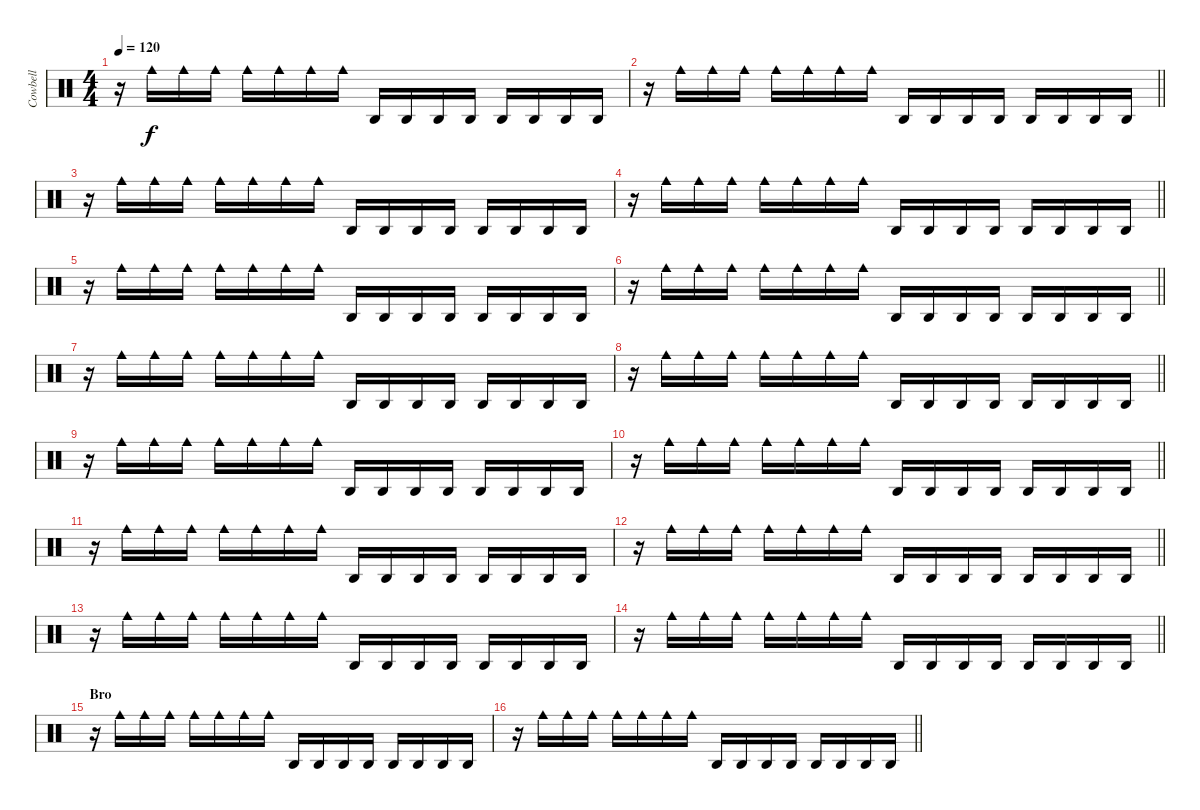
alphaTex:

\track ("Cowbell" "Cowbell") {instrument percussion}
\staff {score}
\articulation defaults
\ts (4 4)
\tempo 120
\clef neutral
\ks c
r.16{dy f} "Cowbell medium (hit)".16 "Cowbell medium (hit)".16 "Cowbell medium (hit)".16 "Cowbell medium (hit)".16 "Cowbell medium (hit)".16 "Cowbell medium (hit)".16 "Cowbell medium (hit)".16 "Agogo high (hit)".16 "Agogo high (hit)".16 "Agogo high (hit)".16 "Agogo high (hit)".16 "Agogo high (hit)".16 "Agogo high (hit)".16 "Agogo high (hit)".16 "Agogo high (hit)".16 |
\barLineRight lightlight
r.16 "Cowbell medium (hit)".16 "Cowbell medium (hit)".16 "Cowbell medium (hit)".16 "Cowbell medium (hit)".16 "Cowbell medium (hit)".16 "Cowbell medium (hit)".16 "Cowbell medium (hit)".16 "Agogo high (hit)".16 "Agogo high (hit)".16 "Agogo high (hit)".16 "Agogo high (hit)".16 "Agogo high (hit)".16 "Agogo high (hit)".16 "Agogo high (hit)".16 "Agogo high (hit)".16 |
r.16 "Cowbell medium (hit)".16 "Cowbell medium (hit)".16 "Cowbell medium (hit)".16 "Cowbell medium (hit)".16 "Cowbell medium (hit)".16 "Cowbell medium (hit)".16 "Cowbell medium (hit)".16 "Agogo high (hit)".16 "Agogo high (hit)".16 "Agogo high (hit)".16 "Agogo high (hit)".16 "Agogo high (hit)".16 "Agogo high (hit)".16 "Agogo high (hit)".16 "Agogo high (hit)".16 |
\barLineRight lightlight
r.16 "Cowbell medium (hit)".16 "Cowbell medium (hit)".16 "Cowbell medium (hit)".16 "Cowbell medium (hit)".16 "Cowbell medium (hit)".16 "Cowbell medium (hit)".16 "Cowbell medium (hit)".16 "Agogo high (hit)".16 "Agogo high (hit)".16 "Agogo high (hit)".16 "Agogo high (hit)".16 "Agogo high (hit)".16 "Agogo high (hit)".16 "Agogo high (hit)".16 "Agogo high (hit)".16 |
r.16 "Cowbell medium (hit)".16 "Cowbell medium (hit)".16 "Cowbell medium (hit)".16 "Cowbell medium (hit)".16 "Cowbell medium (hit)".16 "Cowbell medium (hit)".16 "Cowbell medium (hit)".16 "Agogo high (hit)".16 "Agogo high (hit)".16 "Agogo high (hit)".16 "Agogo high (hit)".16 "Agogo high (hit)".16 "Agogo high (hit)".16 "Agogo high (hit)".16 "Agogo high (hit)".16 |
\barLineRight lightlight
r.16 "Cowbell medium (hit)".16 "Cowbell medium (hit)".16 "Cowbell medium (hit)".16 "Cowbell medium (hit)".16 "Cowbell medium (hit)".16 "Cowbell medium (hit)".16 "Cowbell medium (hit)".16 "Agogo high (hit)".16 "Agogo high (hit)".16 "Agogo high (hit)".16 "Agogo high (hit)".16 "Agogo high (hit)".16 "Agogo high (hit)".16 "Agogo high (hit)".16 "Agogo high (hit)".16 |
r.16 "Cowbell medium (hit)".16 "Cowbell medium (hit)".16 "Cowbell medium (hit)".16 "Cowbell medium (hit)".16 "Cowbell medium (hit)".16 "Cowbell medium (hit)".16 "Cowbell medium (hit)".16 "Agogo high (hit)".16 "Agogo high (hit)".16 "Agogo high (hit)".16 "Agogo high (hit)".16 "Agogo high (hit)".16 "Agogo high (hit)".16 "Agogo high (hit)".16 "Agogo high (hit)".16 |
\barLineRight lightlight
r.16 "Cowbell medium (hit)".16 "Cowbell medium (hit)".16 "Cowbell medium (hit)".16 "Cowbell medium (hit)".16 "Cowbell medium (hit)".16 "Cowbell medium (hit)".16 "Cowbell medium (hit)".16 "Agogo high (hit)".16 "Agogo high (hit)".16 "Agogo high (hit)".16 "Agogo high (hit)".16 "Agogo high (hit)".16 "Agogo high (hit)".16 "Agogo high (hit)".16 "Agogo high (hit)".16 |
r.16 "Cowbell medium (hit)".16 "Cowbell medium (hit)".16 "Cowbell medium (hit)".16 "Cowbell medium (hit)".16 "Cowbell medium (hit)".16 "Cowbell medium (hit)".16 "Cowbell medium (hit)".16 "Agogo high (hit)".16 "Agogo high (hit)".16 "Agogo high (hit)".16 "Agogo high (hit)".16 "Agogo high (hit)".16 "Agogo high (hit)".16 "Agogo high (hit)".16 "Agogo high (hit)".16 |
\barLineRight lightlight
r.16 "Cowbell medium (hit)".16 "Cowbell medium (hit)".16 "Cowbell medium (hit)".16 "Cowbell medium (hit)".16 "Cowbell medium (hit)".16 "Cowbell medium (hit)".16 "Cowbell medium (hit)".16 "Agogo high (hit)".16 "Agogo high (hit)".16 "Agogo high (hit)".16 "Agogo high (hit)".16 "Agogo high (hit)".16 "Agogo high (hit)".16 "Agogo high (hit)".16 "Agogo high (hit)".16 |
r.16 "Cowbell medium (hit)".16 "Cowbell medium (hit)".16 "Cowbell medium (hit)".16 "Cowbell medium (hit)".16 "Cowbell medium (hit)".16 "Cowbell medium (hit)".16 "Cowbell medium (hit)".16 "Agogo high (hit)".16 "Agogo high (hit)".16 "Agogo high (hit)".16 "Agogo high (hit)".16 "Agogo high (hit)".16 "Agogo high (hit)".16 "Agogo high (hit)".16 "Agogo high (hit)".16 |
\barLineRight lightlight
r.16 "Cowbell medium (hit)".16 "Cowbell medium (hit)".16 "Cowbell medium (hit)".16 "Cowbell medium (hit)".16 "Cowbell medium (hit)".16 "Cowbell medium (hit)".16 "Cowbell medium (hit)".16 "Agogo high (hit)".16 "Agogo high (hit)".16 "Agogo high (hit)".16 "Agogo high (hit)".16 "Agogo high (hit)".16 "Agogo high (hit)".16 "Agogo high (hit)".16 "Agogo high (hit)".16 |
r.16 "Cowbell medium (hit)".16 "Cowbell medium (hit)".16 "Cowbell medium (hit)".16 "Cowbell medium (hit)".16 "Cowbell medium (hit)".16 "Cowbell medium (hit)".16 "Cowbell medium (hit)".16 "Agogo high (hit)".16 "Agogo high (hit)".16 "Agogo high (hit)".16 "Agogo high (hit)".16 "Agogo high (hit)".16 "Agogo high (hit)".16 "Agogo high (hit)".16 "Agogo high (hit)".16 |
\barLineRight lightlight
r.16 "Cowbell medium (hit)".16 "Cowbell medium (hit)".16 "Cowbell medium (hit)".16 "Cowbell medium (hit)".16 "Cowbell medium (hit)".16 "Cowbell medium (hit)".16 "Cowbell medium (hit)".16 "Agogo high (hit)".16 "Agogo high (hit)".16 "Agogo high (hit)".16 "Agogo high (hit)".16 "Agogo high (hit)".16 "Agogo high (hit)".16 "Agogo high (hit)".16 "Agogo high (hit)".16 |
\section ("" "Bro")
r.16 "Cowbell medium (hit)".16 "Cowbell medium (hit)".16 "Cowbell medium (hit)".16 "Cowbell medium (hit)".16 "Cowbell medium (hit)".16 "Cowbell medium (hit)".16 "Cowbell medium (hit)".16 "Agogo high (hit)".16 "Agogo high (hit)".16 "Agogo high (hit)".16 "Agogo high (hit)".16 "Agogo high (hit)".16 "Agogo high (hit)".16 "Agogo high (hit)".16 "Agogo high (hit)".16 |
\barLineRight lightlight
r.16 "Cowbell medium (hit)".16 "Cowbell medium (hit)".16 "Cowbell medium (hit)".16 "Cowbell medium (hit)".16 "Cowbell medium (hit)".16 "Cowbell medium (hit)".16 "Cowbell medium (hit)".16 "Agogo high (hit)".16 "Agogo high (hit)".16 "Agogo high (hit)".16 "Agogo high (hit)".16 "Agogo high (hit)".16 "Agogo high (hit)".16 "Agogo high (hit)".16 "Agogo high (hit)".16
